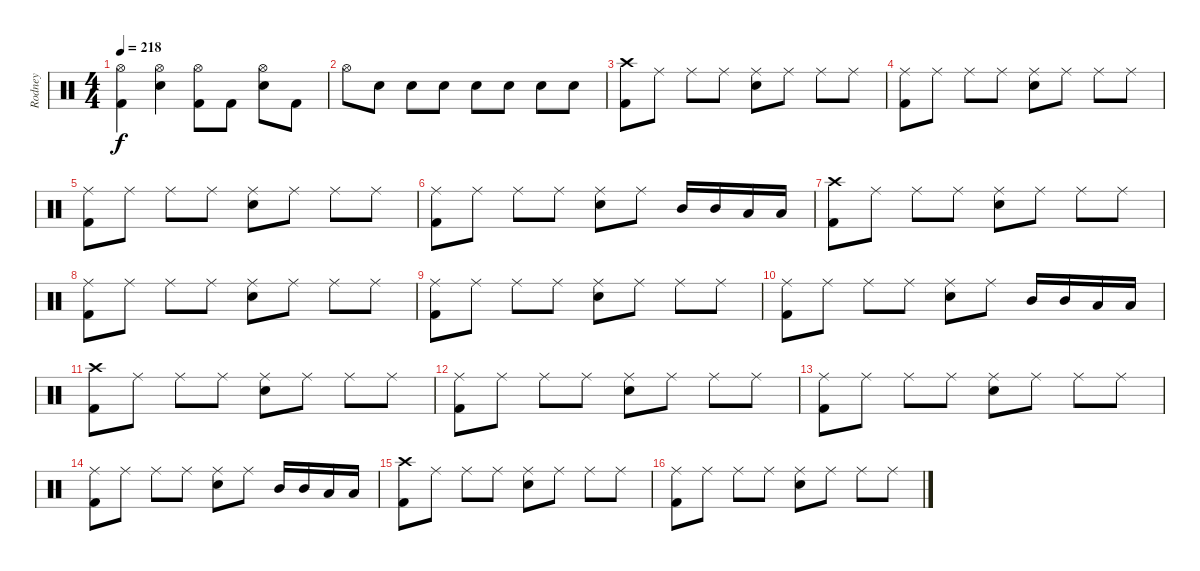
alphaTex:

\track ("Rodney" "Rodney") {instrument percussion}
\staff {score}
\articulation defaults
\ts (4 4)
\tempo 218
\clef neutral
\ks c
("Hi-Hat (open)" "Kick (hit) 2").4{dy f} ("Hi-Hat (open)" "Snare (hit) 2").4 ("Hi-Hat (open)" "Kick (hit) 2").8 "Kick (hit) 2".8 ("Hi-Hat (open)" "Snare (hit) 2").8 "Kick (hit) 2".8 |
"Hi-Hat (open)".8 "Snare (hit) 2".8 "Snare (hit) 2".8 "Snare (hit) 2".8 "Snare (hit) 2".8 "Snare (hit) 2".8 "Snare (hit) 2".8 "Snare (hit) 2".8 |
("Crash high (hit)" "Kick (hit) 2").8 "Ride (middle)".8 "Ride (middle)".8 "Ride (middle)".8 ("Ride (middle)" "Snare (hit) 2").8 "Ride (middle)".8 "Ride (middle)".8 "Ride (middle)".8 |
("Ride (middle)" "Kick (hit) 2").8 "Ride (middle)".8 "Ride (middle)".8 "Ride (middle)".8 ("Ride (middle)" "Snare (hit) 2").8 "Ride (middle)".8 "Ride (middle)".8 "Ride (middle)".8 |
("Ride (middle)" "Kick (hit) 2").8 "Ride (middle)".8 "Ride (middle)".8 "Ride (middle)".8 ("Ride (middle)" "Snare (hit) 2").8 "Ride (middle)".8 "Ride (middle)".8 "Ride (middle)".8 |
("Ride (middle)" "Kick (hit) 2").8 "Ride (middle)".8 "Ride (middle)".8 "Ride (middle)".8 ("Ride (middle)" "Snare (hit) 2").8 "Ride (middle)".8 "Mid Tom (hit)".16 "Mid Tom (hit)".16 "Low Tom (hit)".16 "Low Tom (hit)".16 |
("Crash high (hit)" "Kick (hit) 2").8 "Ride (middle)".8 "Ride (middle)".8 "Ride (middle)".8 ("Ride (middle)" "Snare (hit) 2").8 "Ride (middle)".8 "Ride (middle)".8 "Ride (middle)".8 |
("Ride (middle)" "Kick (hit) 2").8 "Ride (middle)".8 "Ride (middle)".8 "Ride (middle)".8 ("Ride (middle)" "Snare (hit) 2").8 "Ride (middle)".8 "Ride (middle)".8 "Ride (middle)".8 |
("Ride (middle)" "Kick (hit) 2").8 "Ride (middle)".8 "Ride (middle)".8 "Ride (middle)".8 ("Ride (middle)" "Snare (hit) 2").8 "Ride (middle)".8 "Ride (middle)".8 "Ride (middle)".8 |
("Ride (middle)" "Kick (hit) 2").8 "Ride (middle)".8 "Ride (middle)".8 "Ride (middle)".8 ("Ride (middle)" "Snare (hit) 2").8 "Ride (middle)".8 "Mid Tom (hit)".16 "Mid Tom (hit)".16 "Low Tom (hit)".16 "Low Tom (hit)".16 |
("Crash high (hit)" "Kick (hit) 2").8 "Ride (middle)".8 "Ride (middle)".8 "Ride (middle)".8 ("Ride (middle)" "Snare (hit) 2").8 "Ride (middle)".8 "Ride (middle)".8 "Ride (middle)".8 |
("Ride (middle)" "Kick (hit) 2").8 "Ride (middle)".8 "Ride (middle)".8 "Ride (middle)".8 ("Ride (middle)" "Snare (hit) 2").8 "Ride (middle)".8 "Ride (middle)".8 "Ride (middle)".8 |
("Ride (middle)" "Kick (hit) 2").8 "Ride (middle)".8 "Ride (middle)".8 "Ride (middle)".8 ("Ride (middle)" "Snare (hit) 2").8 "Ride (middle)".8 "Ride (middle)".8 "Ride (middle)".8 |
("Ride (middle)" "Kick (hit) 2").8 "Ride (middle)".8 "Ride (middle)".8 "Ride (middle)".8 ("Ride (middle)" "Snare (hit) 2").8 "Ride (middle)".8 "Mid Tom (hit)".16 "Mid Tom (hit)".16 "Low Tom (hit)".16 "Low Tom (hit)".16 |
("Crash high (hit)" "Kick (hit) 2").8 "Ride (middle)".8 "Ride (middle)".8 "Ride (middle)".8 ("Ride (middle)" "Snare (hit) 2").8 "Ride (middle)".8 "Ride (middle)".8 "Ride (middle)".8 |
("Ride (middle)" "Kick (hit) 2").8 "Ride (middle)".8 "Ride (middle)".8 "Ride (middle)".8 ("Ride (middle)" "Snare (hit) 2").8 "Ride (middle)".8 "Ride (middle)".8 "Ride (middle)".8
